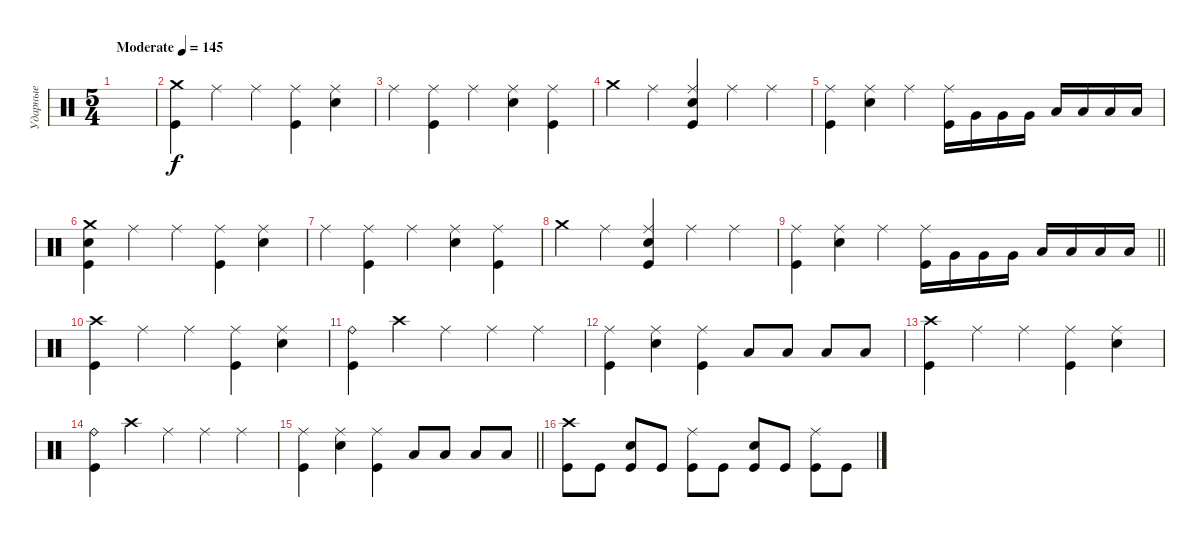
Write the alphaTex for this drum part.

\track ("Ударные" "Ударные") {instrument percussion}
\staff {score}
\articulation defaults
\ts (5 4)
\tempo (145 "Moderate")
\clef neutral
\ks c
|
("Crash medium (hit)" "Kick (hit)").4 "Ride (middle)".4 "Ride (middle)".4 ("Ride (middle)" "Kick (hit)").4 ("Ride (middle)" "Electric Snare (hit)").4 |
"Ride (middle)".4 ("Ride (middle)" "Kick (hit)").4 "Ride (middle)".4 ("Ride (middle)" "Electric Snare (hit)").4 ("Ride (middle)" "Kick (hit)").4 |
"Crash medium (hit)".4 "Ride (middle)".4 ("Ride (middle)" "Electric Snare (hit)" "Kick (hit)").4 "Ride (middle)".4 "Ride (middle)".4 |
("Ride (middle)" "Kick (hit)").4 ("Ride (middle)" "Electric Snare (hit)").4 "Ride (middle)".4 ("Ride (middle)" "Kick (hit)").16 "Very Low Tom (hit)".16 "Very Low Tom (hit)".16 "Very Low Tom (hit)".16 "Low Floor Tom (hit)".16 "Low Floor Tom (hit)".16 "Low Floor Tom (hit)".16 "Low Floor Tom (hit)".16 |
("Crash medium (hit)" "Electric Snare (hit)" "Kick (hit)").4 "Ride (middle)".4 "Ride (middle)".4 ("Ride (middle)" "Kick (hit)").4 ("Ride (middle)" "Electric Snare (hit)").4 |
"Ride (middle)".4 ("Ride (middle)" "Kick (hit)").4 "Ride (middle)".4 ("Ride (middle)" "Electric Snare (hit)").4 ("Ride (middle)" "Kick (hit)").4 |
"Crash medium (hit)".4 "Ride (middle)".4 ("Ride (middle)" "Electric Snare (hit)" "Kick (hit)").4 "Ride (middle)".4 "Ride (middle)".4 |
\barLineRight lightlight
("Ride (middle)" "Kick (hit)").4 ("Ride (middle)" "Electric Snare (hit)").4 "Ride (middle)".4 ("Ride (middle)" "Kick (hit)").16 "Very Low Tom (hit)".16 "Very Low Tom (hit)".16 "Very Low Tom (hit)".16 "Low Floor Tom (hit)".16 "Low Floor Tom (hit)".16 "Low Floor Tom (hit)".16 "Low Floor Tom (hit)".16 |
\section ("" " ")
("Crash high (hit)" "Kick (hit)").4 "Ride (middle)".4 "Ride (middle)".4 ("Ride (middle)" "Kick (hit)").4 ("Ride (middle)" "Electric Snare (hit)").4 |
("Ride (bell)" "Kick (hit)").4 "Crash high (hit)".4 "Ride (middle)".4 "Ride (middle)".4 "Ride (middle)".4 |
("Ride (middle)" "Kick (hit)").4 ("Ride (middle)" "Electric Snare (hit)").4 ("Ride (middle)" "Kick (hit)").4 "Low Tom (hit)".8 "Low Tom (hit)".8 "Low Tom (hit)".8 "Low Tom (hit)".8 |
("Crash high (hit)" "Kick (hit)").4 "Ride (middle)".4 "Ride (middle)".4 ("Ride (middle)" "Kick (hit)").4 ("Ride (middle)" "Electric Snare (hit)").4 |
("Ride (bell)" "Kick (hit)").4 "Crash high (hit)".4 "Ride (middle)".4 "Ride (middle)".4 "Ride (middle)".4 |
\barLineRight lightlight
("Ride (middle)" "Kick (hit)").4 ("Ride (middle)" "Electric Snare (hit)").4 ("Ride (middle)" "Kick (hit)").4 "Low Tom (hit)".8 "Low Tom (hit)".8 "Low Tom (hit)".8 "Low Tom (hit)".8 |
\section ("" " ")
("Crash high (hit)" "Kick (hit)").8 "Kick (hit)".8 ("Electric Snare (hit)" "Kick (hit)").8 "Kick (hit)".8 ("Ride (middle)" "Kick (hit)").8 "Kick (hit)".8 ("Electric Snare (hit)" "Kick (hit)").8 "Kick (hit)".8 ("Ride (middle)" "Kick (hit)").8 "Kick (hit)".8
